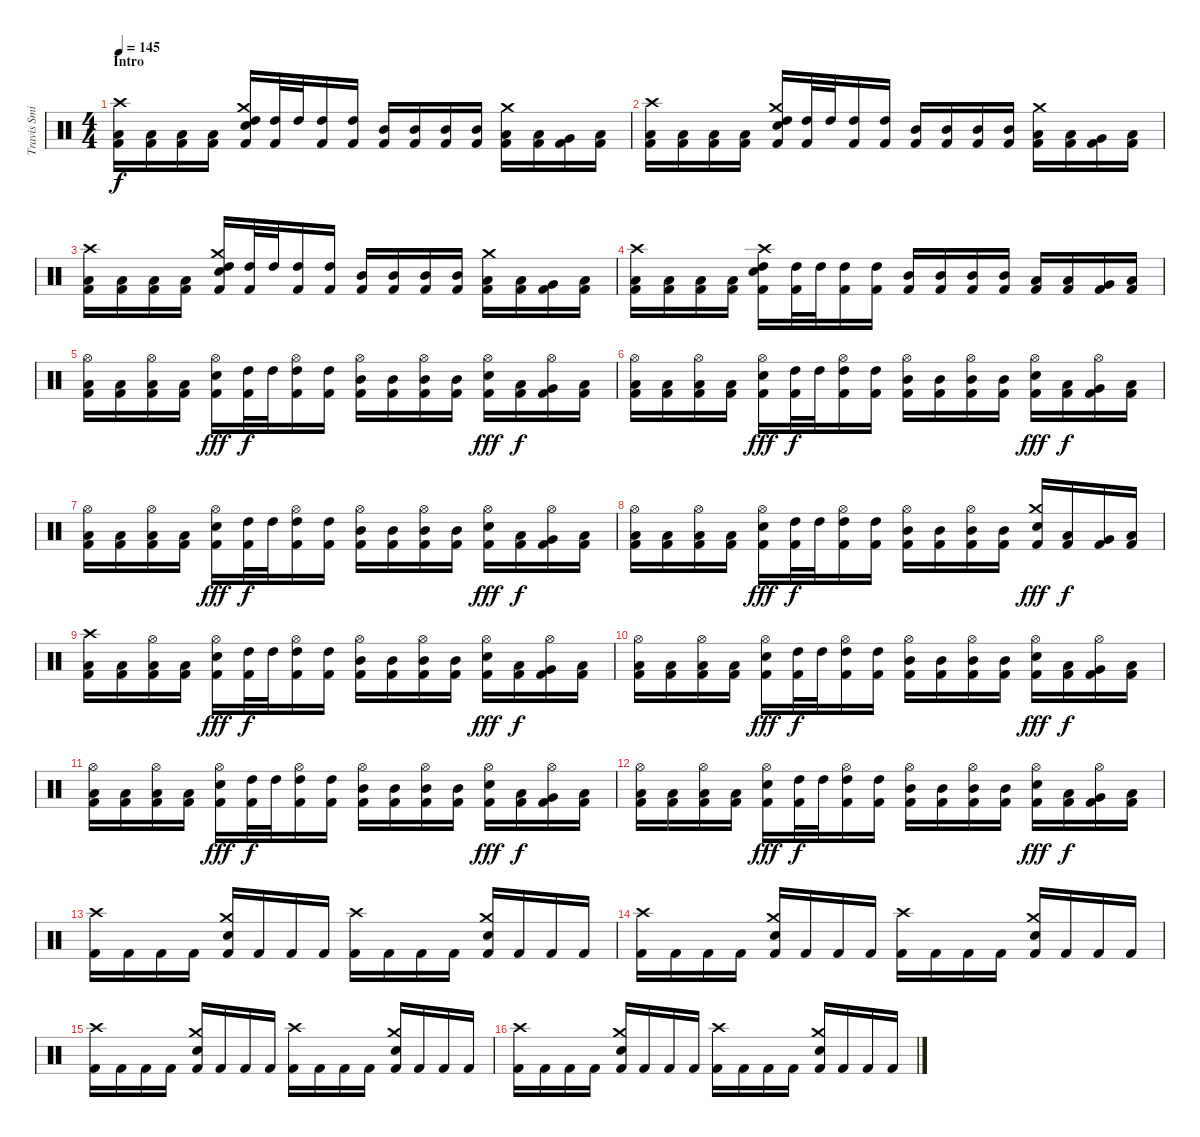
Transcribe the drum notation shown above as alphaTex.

\track ("Travis Smith" "Travis Smi") {instrument percussion}
\staff {score}
\articulation defaults
\ts (4 4)
\section ("" "Intro")
\tempo 145
\clef neutral
\ks c
("Crash high (hit)" "Low Tom (hit)" "Kick (hit) 2").16{dy f} ("Low Tom (hit)" "Kick (hit) 2").16 ("Low Tom (hit)" "Kick (hit) 2").16 ("Low Tom (hit)" "Kick (hit) 2").16 ("Crash medium (hit)" "Electric Snare (hit)" "High Tom (hit)" "Kick (hit) 2").16 ("High Tom (hit)" "Kick (hit) 2").32 "High Tom (hit)".32 ("High Tom (hit)" "Kick (hit) 2").16 ("High Tom (hit)" "Kick (hit) 2").16 ("Mid Tom (hit)" "Kick (hit) 2").16 ("Mid Tom (hit)" "Kick (hit) 2").16 ("Mid Tom (hit)" "Kick (hit) 2").16 ("Mid Tom (hit)" "Kick (hit) 2").16 ("Crash medium (hit)" "Low Tom (hit)" "Kick (hit) 2").16 ("Low Tom (hit)" "Kick (hit) 2").16 ("Very Low Tom (hit)" "Kick (hit) 2").16 ("Low Floor Tom (hit)" "Kick (hit) 2").16 |
("Crash high (hit)" "Low Tom (hit)" "Kick (hit) 2").16 ("Low Tom (hit)" "Kick (hit) 2").16 ("Low Tom (hit)" "Kick (hit) 2").16 ("Low Tom (hit)" "Kick (hit) 2").16 ("Crash medium (hit)" "Electric Snare (hit)" "High Tom (hit)" "Kick (hit) 2").16 ("High Tom (hit)" "Kick (hit) 2").32 "High Tom (hit)".32 ("High Tom (hit)" "Kick (hit) 2").16 ("High Tom (hit)" "Kick (hit) 2").16 ("Mid Tom (hit)" "Kick (hit) 2").16 ("Mid Tom (hit)" "Kick (hit) 2").16 ("Mid Tom (hit)" "Kick (hit) 2").16 ("Mid Tom (hit)" "Kick (hit) 2").16 ("Crash medium (hit)" "Low Tom (hit)" "Kick (hit) 2").16 ("Low Tom (hit)" "Kick (hit) 2").16 ("Very Low Tom (hit)" "Kick (hit) 2").16 ("Low Floor Tom (hit)" "Kick (hit) 2").16 |
("Crash high (hit)" "Low Tom (hit)" "Kick (hit) 2").16 ("Low Tom (hit)" "Kick (hit) 2").16 ("Low Tom (hit)" "Kick (hit) 2").16 ("Low Tom (hit)" "Kick (hit) 2").16 ("Crash medium (hit)" "Electric Snare (hit)" "High Tom (hit)" "Kick (hit) 2").16 ("High Tom (hit)" "Kick (hit) 2").32 "High Tom (hit)".32 ("High Tom (hit)" "Kick (hit) 2").16 ("High Tom (hit)" "Kick (hit) 2").16 ("Mid Tom (hit)" "Kick (hit) 2").16 ("Mid Tom (hit)" "Kick (hit) 2").16 ("Mid Tom (hit)" "Kick (hit) 2").16 ("Mid Tom (hit)" "Kick (hit) 2").16 ("Crash medium (hit)" "Low Tom (hit)" "Kick (hit) 2").16 ("Low Tom (hit)" "Kick (hit) 2").16 ("Very Low Tom (hit)" "Kick (hit) 2").16 ("Low Floor Tom (hit)" "Kick (hit) 2").16 |
("Crash high (hit)" "Low Tom (hit)" "Kick (hit) 2").16 ("Low Tom (hit)" "Kick (hit) 2").16 ("Low Tom (hit)" "Kick (hit) 2").16 ("Low Tom (hit)" "Kick (hit) 2").16 ("Crash high (hit)" "Electric Snare (hit)" "High Tom (hit)" "Kick (hit) 2").16 ("High Tom (hit)" "Kick (hit) 2").32 "High Tom (hit)".32 ("High Tom (hit)" "Kick (hit) 2").16 ("High Tom (hit)" "Kick (hit) 2").16 ("Mid Tom (hit)" "Kick (hit) 2").16 ("Mid Tom (hit)" "Kick (hit) 2").16 ("Mid Tom (hit)" "Kick (hit) 2").16 ("Mid Tom (hit)" "Kick (hit) 2").16 ("Low Tom (hit)" "Kick (hit) 2").16 ("Low Tom (hit)" "Kick (hit) 2").16 ("Very Low Tom (hit)" "Kick (hit) 2").16 ("Low Floor Tom (hit)" "Kick (hit) 2").16 |
("Hi-Hat (open)" "Low Tom (hit)" "Kick (hit) 2").16 ("Low Tom (hit)" "Kick (hit) 2").16 ("Hi-Hat (open)" "Low Tom (hit)" "Kick (hit) 2").16 ("Low Tom (hit)" "Kick (hit) 2").16 ("Hi-Hat (open)" "Electric Snare (hit)" "Kick (hit) 2").16{dy fff} ("High Tom (hit)" "Kick (hit) 2").32{dy f} "High Tom (hit)".32 ("Hi-Hat (open)" "High Tom (hit)" "Kick (hit) 2").16 ("High Tom (hit)" "Kick (hit) 2").16 ("Hi-Hat (open)" "Mid Tom (hit)" "Kick (hit) 2").16 ("Mid Tom (hit)" "Kick (hit) 2").16 ("Hi-Hat (open)" "Mid Tom (hit)" "Kick (hit) 2").16 ("Mid Tom (hit)" "Kick (hit) 2").16 ("Hi-Hat (open)" "Electric Snare (hit)" "Kick (hit) 2").16{dy fff} ("Low Tom (hit)" "Kick (hit) 2").16{dy f} ("Hi-Hat (open)" "Very Low Tom (hit)" "Kick (hit) 2").16 ("Low Floor Tom (hit)" "Kick (hit) 2").16 |
("Hi-Hat (open)" "Low Tom (hit)" "Kick (hit) 2").16 ("Low Tom (hit)" "Kick (hit) 2").16 ("Hi-Hat (open)" "Low Tom (hit)" "Kick (hit) 2").16 ("Low Tom (hit)" "Kick (hit) 2").16 ("Hi-Hat (open)" "Electric Snare (hit)" "Kick (hit) 2").16{dy fff} ("High Tom (hit)" "Kick (hit) 2").32{dy f} "High Tom (hit)".32 ("Hi-Hat (open)" "High Tom (hit)" "Kick (hit) 2").16 ("High Tom (hit)" "Kick (hit) 2").16 ("Hi-Hat (open)" "Mid Tom (hit)" "Kick (hit) 2").16 ("Mid Tom (hit)" "Kick (hit) 2").16 ("Hi-Hat (open)" "Mid Tom (hit)" "Kick (hit) 2").16 ("Mid Tom (hit)" "Kick (hit) 2").16 ("Hi-Hat (open)" "Electric Snare (hit)" "Kick (hit) 2").16{dy fff} ("Low Tom (hit)" "Kick (hit) 2").16{dy f} ("Hi-Hat (open)" "Very Low Tom (hit)" "Kick (hit) 2").16 ("Low Floor Tom (hit)" "Kick (hit) 2").16 |
("Hi-Hat (open)" "Low Tom (hit)" "Kick (hit) 2").16 ("Low Tom (hit)" "Kick (hit) 2").16 ("Hi-Hat (open)" "Low Tom (hit)" "Kick (hit) 2").16 ("Low Tom (hit)" "Kick (hit) 2").16 ("Hi-Hat (open)" "Electric Snare (hit)" "Kick (hit) 2").16{dy fff} ("High Tom (hit)" "Kick (hit) 2").32{dy f} "High Tom (hit)".32 ("Hi-Hat (open)" "High Tom (hit)" "Kick (hit) 2").16 ("High Tom (hit)" "Kick (hit) 2").16 ("Hi-Hat (open)" "Mid Tom (hit)" "Kick (hit) 2").16 ("Mid Tom (hit)" "Kick (hit) 2").16 ("Hi-Hat (open)" "Mid Tom (hit)" "Kick (hit) 2").16 ("Mid Tom (hit)" "Kick (hit) 2").16 ("Hi-Hat (open)" "Electric Snare (hit)" "Kick (hit) 2").16{dy fff} ("Low Tom (hit)" "Kick (hit) 2").16{dy f} ("Hi-Hat (open)" "Very Low Tom (hit)" "Kick (hit) 2").16 ("Low Floor Tom (hit)" "Kick (hit) 2").16 |
("Hi-Hat (open)" "Low Tom (hit)" "Kick (hit) 2").16 ("Low Tom (hit)" "Kick (hit) 2").16 ("Hi-Hat (open)" "Low Tom (hit)" "Kick (hit) 2").16 ("Low Tom (hit)" "Kick (hit) 2").16 ("Hi-Hat (open)" "Electric Snare (hit)" "Kick (hit) 2").16{dy fff} ("High Tom (hit)" "Kick (hit) 2").32{dy f} "High Tom (hit)".32 ("Hi-Hat (open)" "High Tom (hit)" "Kick (hit) 2").16 ("High Tom (hit)" "Kick (hit) 2").16 ("Hi-Hat (open)" "Mid Tom (hit)" "Kick (hit) 2").16 ("Mid Tom (hit)" "Kick (hit) 2").16 ("Hi-Hat (open)" "Mid Tom (hit)" "Kick (hit) 2").16 ("Mid Tom (hit)" "Kick (hit) 2").16 ("Crash medium (hit)" "Electric Snare (hit)" "Kick (hit) 2").16{dy fff} ("Low Tom (hit)" "Kick (hit) 2").16{dy f} ("Very Low Tom (hit)" "Kick (hit) 2").16 ("Low Floor Tom (hit)" "Kick (hit) 2").16 |
("Crash high (hit)" "Low Tom (hit)" "Kick (hit) 2").16 ("Low Tom (hit)" "Kick (hit) 2").16 ("Hi-Hat (open)" "Low Tom (hit)" "Kick (hit) 2").16 ("Low Tom (hit)" "Kick (hit) 2").16 ("Hi-Hat (open)" "Electric Snare (hit)" "Kick (hit) 2").16{dy fff} ("High Tom (hit)" "Kick (hit) 2").32{dy f} "High Tom (hit)".32 ("Hi-Hat (open)" "High Tom (hit)" "Kick (hit) 2").16 ("High Tom (hit)" "Kick (hit) 2").16 ("Hi-Hat (open)" "Mid Tom (hit)" "Kick (hit) 2").16 ("Mid Tom (hit)" "Kick (hit) 2").16 ("Hi-Hat (open)" "Mid Tom (hit)" "Kick (hit) 2").16 ("Mid Tom (hit)" "Kick (hit) 2").16 ("Hi-Hat (open)" "Electric Snare (hit)" "Kick (hit) 2").16{dy fff} ("Low Tom (hit)" "Kick (hit) 2").16{dy f} ("Hi-Hat (open)" "Very Low Tom (hit)" "Kick (hit) 2").16 ("Low Floor Tom (hit)" "Kick (hit) 2").16 |
("Hi-Hat (open)" "Low Tom (hit)" "Kick (hit) 2").16 ("Low Tom (hit)" "Kick (hit) 2").16 ("Hi-Hat (open)" "Low Tom (hit)" "Kick (hit) 2").16 ("Low Tom (hit)" "Kick (hit) 2").16 ("Hi-Hat (open)" "Electric Snare (hit)" "Kick (hit) 2").16{dy fff} ("High Tom (hit)" "Kick (hit) 2").32{dy f} "High Tom (hit)".32 ("Hi-Hat (open)" "High Tom (hit)" "Kick (hit) 2").16 ("High Tom (hit)" "Kick (hit) 2").16 ("Hi-Hat (open)" "Mid Tom (hit)" "Kick (hit) 2").16 ("Mid Tom (hit)" "Kick (hit) 2").16 ("Hi-Hat (open)" "Mid Tom (hit)" "Kick (hit) 2").16 ("Mid Tom (hit)" "Kick (hit) 2").16 ("Hi-Hat (open)" "Electric Snare (hit)" "Kick (hit) 2").16{dy fff} ("Low Tom (hit)" "Kick (hit) 2").16{dy f} ("Hi-Hat (open)" "Very Low Tom (hit)" "Kick (hit) 2").16 ("Low Floor Tom (hit)" "Kick (hit) 2").16 |
("Hi-Hat (open)" "Low Tom (hit)" "Kick (hit) 2").16 ("Low Tom (hit)" "Kick (hit) 2").16 ("Hi-Hat (open)" "Low Tom (hit)" "Kick (hit) 2").16 ("Low Tom (hit)" "Kick (hit) 2").16 ("Hi-Hat (open)" "Electric Snare (hit)" "Kick (hit) 2").16{dy fff} ("High Tom (hit)" "Kick (hit) 2").32{dy f} "High Tom (hit)".32 ("Hi-Hat (open)" "High Tom (hit)" "Kick (hit) 2").16 ("High Tom (hit)" "Kick (hit) 2").16 ("Hi-Hat (open)" "Mid Tom (hit)" "Kick (hit) 2").16 ("Mid Tom (hit)" "Kick (hit) 2").16 ("Hi-Hat (open)" "Mid Tom (hit)" "Kick (hit) 2").16 ("Mid Tom (hit)" "Kick (hit) 2").16 ("Hi-Hat (open)" "Electric Snare (hit)" "Kick (hit) 2").16{dy fff} ("Low Tom (hit)" "Kick (hit) 2").16{dy f} ("Hi-Hat (open)" "Very Low Tom (hit)" "Kick (hit) 2").16 ("Low Floor Tom (hit)" "Kick (hit) 2").16 |
("Hi-Hat (open)" "Low Tom (hit)" "Kick (hit) 2").16 ("Low Tom (hit)" "Kick (hit) 2").16 ("Hi-Hat (open)" "Low Tom (hit)" "Kick (hit) 2").16 ("Low Tom (hit)" "Kick (hit) 2").16 ("Hi-Hat (open)" "Electric Snare (hit)" "Kick (hit) 2").16{dy fff} ("High Tom (hit)" "Kick (hit) 2").32{dy f} "High Tom (hit)".32 ("Hi-Hat (open)" "High Tom (hit)" "Kick (hit) 2").16 ("High Tom (hit)" "Kick (hit) 2").16 ("Hi-Hat (open)" "Mid Tom (hit)" "Kick (hit) 2").16 ("Mid Tom (hit)" "Kick (hit) 2").16 ("Hi-Hat (open)" "Mid Tom (hit)" "Kick (hit) 2").16 ("Mid Tom (hit)" "Kick (hit) 2").16 ("Hi-Hat (open)" "Electric Snare (hit)" "Kick (hit) 2").16{dy fff} ("Low Tom (hit)" "Kick (hit) 2").16{dy f} ("Hi-Hat (open)" "Very Low Tom (hit)" "Kick (hit) 2").16 ("Low Floor Tom (hit)" "Kick (hit) 2").16 |
("Crash high (hit)" "Kick (hit) 2").16 "Kick (hit) 2".16 "Kick (hit) 2".16 "Kick (hit) 2".16 ("Crash medium (hit)" "Electric Snare (hit)" "Kick (hit) 2").16 "Kick (hit) 2".16 "Kick (hit) 2".16 "Kick (hit) 2".16 ("Crash high (hit)" "Kick (hit) 2").16 "Kick (hit) 2".16 "Kick (hit) 2".16 "Kick (hit) 2".16 ("Crash medium (hit)" "Electric Snare (hit)" "Kick (hit) 2").16 "Kick (hit) 2".16 "Kick (hit) 2".16 "Kick (hit) 2".16 |
("Crash high (hit)" "Kick (hit) 2").16 "Kick (hit) 2".16 "Kick (hit) 2".16 "Kick (hit) 2".16 ("Crash medium (hit)" "Electric Snare (hit)" "Kick (hit) 2").16 "Kick (hit) 2".16 "Kick (hit) 2".16 "Kick (hit) 2".16 ("Crash high (hit)" "Kick (hit) 2").16 "Kick (hit) 2".16 "Kick (hit) 2".16 "Kick (hit) 2".16 ("Crash medium (hit)" "Electric Snare (hit)" "Kick (hit) 2").16 "Kick (hit) 2".16 "Kick (hit) 2".16 "Kick (hit) 2".16 |
("Crash high (hit)" "Kick (hit) 2").16 "Kick (hit) 2".16 "Kick (hit) 2".16 "Kick (hit) 2".16 ("Crash medium (hit)" "Electric Snare (hit)" "Kick (hit) 2").16 "Kick (hit) 2".16 "Kick (hit) 2".16 "Kick (hit) 2".16 ("Crash high (hit)" "Kick (hit) 2").16 "Kick (hit) 2".16 "Kick (hit) 2".16 "Kick (hit) 2".16 ("Crash medium (hit)" "Electric Snare (hit)" "Kick (hit) 2").16 "Kick (hit) 2".16 "Kick (hit) 2".16 "Kick (hit) 2".16 |
("Crash high (hit)" "Kick (hit) 2").16 "Kick (hit) 2".16 "Kick (hit) 2".16 "Kick (hit) 2".16 ("Crash medium (hit)" "Electric Snare (hit)" "Kick (hit) 2").16 "Kick (hit) 2".16 "Kick (hit) 2".16 "Kick (hit) 2".16 ("Crash high (hit)" "Kick (hit) 2").16 "Kick (hit) 2".16 "Kick (hit) 2".16 "Kick (hit) 2".16 ("Crash medium (hit)" "Electric Snare (hit)" "Kick (hit) 2").16 "Kick (hit) 2".16 "Kick (hit) 2".16 "Kick (hit) 2".16
